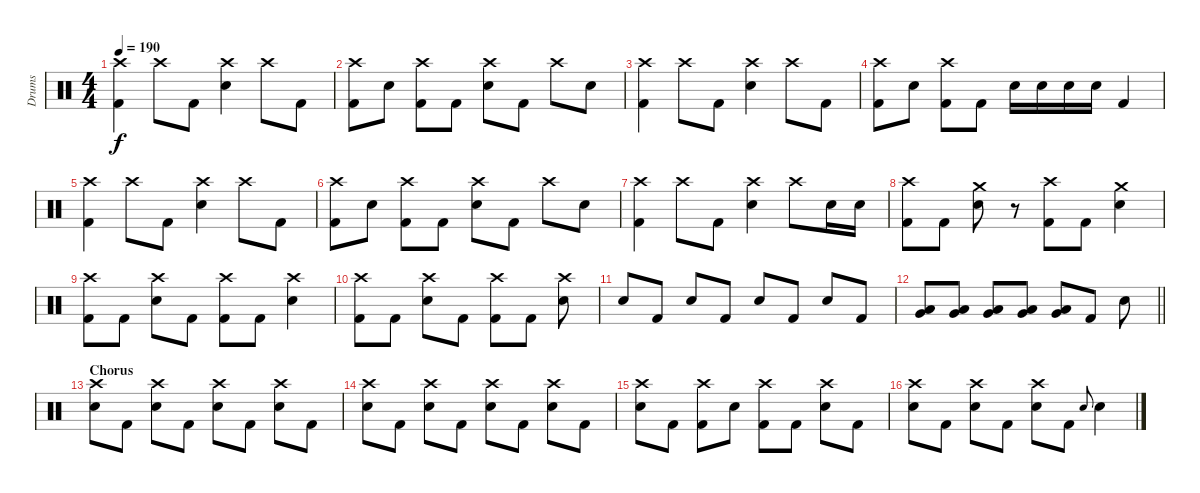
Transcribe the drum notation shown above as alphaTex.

\track ("Drums" "Drums") {instrument percussion}
\staff {score}
\articulation defaults
\ts (4 4)
\tempo 190
\clef neutral
\ks c
("Crash high (hit)" "Kick (hit) 2").4{dy f} "Crash high (hit)".8 "Kick (hit) 2".8 ("Crash high (hit)" "Electric Snare (hit)").4 "Crash high (hit)".8 "Kick (hit) 2".8 |
("Crash high (hit)" "Kick (hit) 2").8 "Electric Snare (hit)".8 ("Crash high (hit)" "Kick (hit) 2").8 "Kick (hit) 2".8 ("Crash high (hit)" "Electric Snare (hit)").8 "Kick (hit) 2".8 "Crash high (hit)".8 "Electric Snare (hit)".8 |
("Crash high (hit)" "Kick (hit) 2").4 "Crash high (hit)".8 "Kick (hit) 2".8 ("Crash high (hit)" "Electric Snare (hit)").4 "Crash high (hit)".8 "Kick (hit) 2".8 |
("Crash high (hit)" "Kick (hit) 2").8 "Electric Snare (hit)".8 ("Crash high (hit)" "Kick (hit) 2").8 "Kick (hit) 2".8 "Electric Snare (hit)".16 "Electric Snare (hit)".16 "Electric Snare (hit)".16 "Electric Snare (hit)".16 "Kick (hit) 2".4 |
("Crash high (hit)" "Kick (hit) 2").4 "Crash high (hit)".8 "Kick (hit) 2".8 ("Crash high (hit)" "Electric Snare (hit)").4 "Crash high (hit)".8 "Kick (hit) 2".8 |
("Crash high (hit)" "Kick (hit) 2").8 "Electric Snare (hit)".8 ("Crash high (hit)" "Kick (hit) 2").8 "Kick (hit) 2".8 ("Crash high (hit)" "Electric Snare (hit)").8 "Kick (hit) 2".8 "Crash high (hit)".8 "Electric Snare (hit)".8 |
("Crash high (hit)" "Kick (hit) 2").4 "Crash high (hit)".8 "Kick (hit) 2".8 ("Crash high (hit)" "Electric Snare (hit)").4 "Crash high (hit)".8 "Electric Snare (hit)".16 "Electric Snare (hit)".16 |
("Crash high (hit)" "Kick (hit) 2").8 "Kick (hit) 2".8 ("Crash medium (hit)" "Electric Snare (hit)").8 r.8 ("Crash high (hit)" "Kick (hit) 2").8 "Kick (hit) 2".8 ("Crash medium (hit)" "Electric Snare (hit)").4 |
("Crash high (hit)" "Kick (hit) 2").8 "Kick (hit) 2".8 ("Crash high (hit)" "Electric Snare (hit)").8 "Kick (hit) 2".8 ("Crash high (hit)" "Kick (hit) 2").8 "Kick (hit) 2".8 ("Crash high (hit)" "Electric Snare (hit)").4 |
("Crash high (hit)" "Kick (hit) 2").8 "Kick (hit) 2".8 ("Crash high (hit)" "Electric Snare (hit)").8 "Kick (hit) 2".8 ("Crash high (hit)" "Kick (hit) 2").8 "Kick (hit) 2".8 ("Crash high (hit)" "Electric Snare (hit)").8 |
"Electric Snare (hit)".8 "Kick (hit) 2".8 "Electric Snare (hit)".8 "Kick (hit) 2".8 "Electric Snare (hit)".8 "Kick (hit) 2".8 "Electric Snare (hit)".8 "Kick (hit) 2".8 |
\barLineRight lightlight
("Very Low Tom (hit)" "Low Floor Tom (hit)").8 ("Very Low Tom (hit)" "Low Floor Tom (hit)").8 ("Very Low Tom (hit)" "Low Floor Tom (hit)").8 ("Very Low Tom (hit)" "Low Floor Tom (hit)").8 ("Very Low Tom (hit)" "Low Floor Tom (hit)").8 "Kick (hit) 2".8 "Electric Snare (hit)".8 |
\section ("" "Chorus ")
("Crash high (hit)" "Electric Snare (hit)").8 "Kick (hit) 2".8 ("Crash high (hit)" "Electric Snare (hit)").8 "Kick (hit) 2".8 ("Crash high (hit)" "Electric Snare (hit)").8 "Kick (hit) 2".8 ("Crash high (hit)" "Electric Snare (hit)").8 "Kick (hit) 2".8 |
("Crash high (hit)" "Electric Snare (hit)").8 "Kick (hit) 2".8 ("Crash high (hit)" "Electric Snare (hit)").8 "Kick (hit) 2".8 ("Crash high (hit)" "Electric Snare (hit)").8 "Kick (hit) 2".8 ("Crash high (hit)" "Electric Snare (hit)").8 "Kick (hit) 2".8 |
("Crash high (hit)" "Electric Snare (hit)").8 "Kick (hit) 2".8 ("Crash high (hit)" "Kick (hit) 2").8 "Electric Snare (hit)".8 ("Crash high (hit)" "Kick (hit) 2").8 "Kick (hit) 2".8 ("Crash high (hit)" "Electric Snare (hit)").8 "Kick (hit) 2".8 |
("Crash high (hit)" "Electric Snare (hit)").8 "Kick (hit) 2".8 ("Crash high (hit)" "Electric Snare (hit)").8 "Kick (hit) 2".8 ("Crash high (hit)" "Electric Snare (hit)").8 "Kick (hit) 2".8 "Electric Snare (hit)".8{gr onbeat} "Electric Snare (hit)".4
